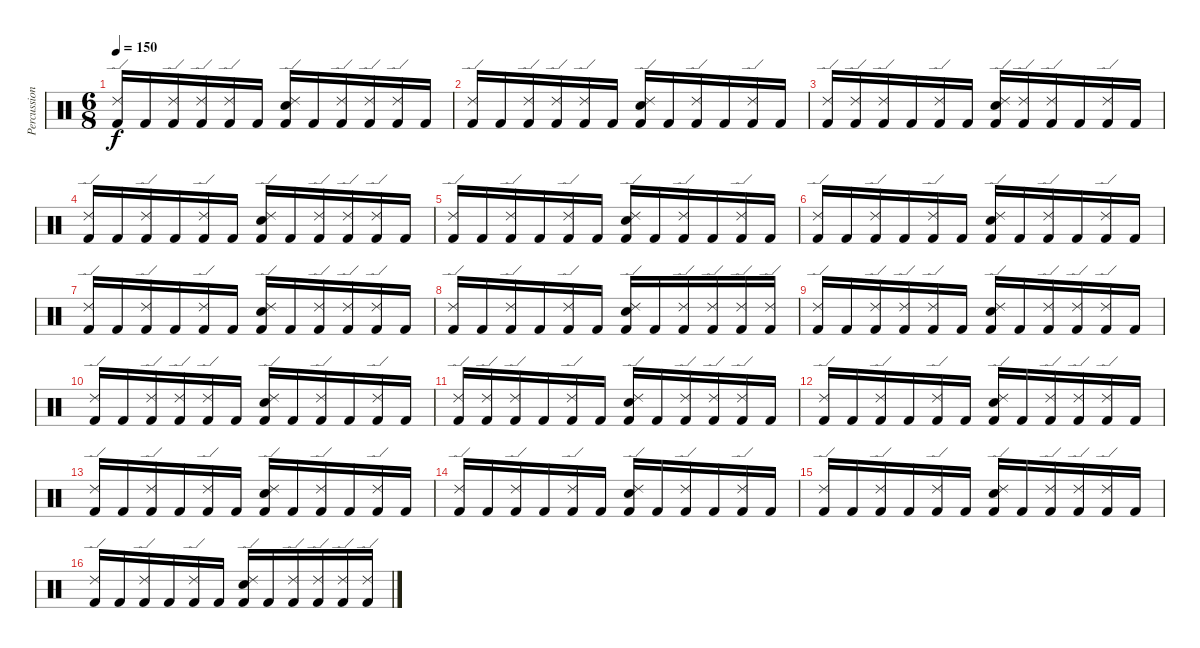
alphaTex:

\track ("Percussion" "Percussion") {instrument percussion}
\staff {score}
\articulation defaults
\ts (6 8)
\tempo 150
\clef neutral
\ks c
("Ride (edge) 2" "Kick (hit) 2").16{dy f} "Kick (hit) 2".16 ("Ride (edge) 2" "Kick (hit) 2").16 ("Ride (edge) 2" "Kick (hit) 2").16 ("Ride (edge) 2" "Kick (hit) 2").16 "Kick (hit) 2".16 ("Ride (edge) 2" "Electric Snare (hit)" "Kick (hit) 2").16 "Kick (hit) 2".16 ("Ride (edge) 2" "Kick (hit) 2").16 ("Ride (edge) 2" "Kick (hit) 2").16 ("Ride (edge) 2" "Kick (hit) 2").16 "Kick (hit) 2".16 |
("Ride (edge) 2" "Kick (hit) 2").16 "Kick (hit) 2".16 ("Ride (edge) 2" "Kick (hit) 2").16 ("Ride (edge) 2" "Kick (hit) 2").16 ("Ride (edge) 2" "Kick (hit) 2").16 "Kick (hit) 2".16 ("Ride (edge) 2" "Electric Snare (hit)" "Kick (hit) 2").16 "Kick (hit) 2".16 ("Ride (edge) 2" "Kick (hit) 2").16 "Kick (hit) 2".16 ("Ride (edge) 2" "Kick (hit) 2").16 "Kick (hit) 2".16 |
("Ride (edge) 2" "Kick (hit) 2").16 ("Ride (edge) 2" "Kick (hit) 2").16 ("Ride (edge) 2" "Kick (hit) 2").16 "Kick (hit) 2".16 ("Ride (edge) 2" "Kick (hit) 2").16 "Kick (hit) 2".16 ("Ride (edge) 2" "Electric Snare (hit)" "Kick (hit) 2").16 ("Ride (edge) 2" "Kick (hit) 2").16 ("Ride (edge) 2" "Kick (hit) 2").16 "Kick (hit) 2".16 ("Ride (edge) 2" "Kick (hit) 2").16 "Kick (hit) 2".16 |
("Ride (edge) 2" "Kick (hit) 2").16 "Kick (hit) 2".16 ("Ride (edge) 2" "Kick (hit) 2").16 "Kick (hit) 2".16 ("Ride (edge) 2" "Kick (hit) 2").16 "Kick (hit) 2".16 ("Ride (edge) 2" "Electric Snare (hit)" "Kick (hit) 2").16 "Kick (hit) 2".16 ("Ride (edge) 2" "Kick (hit) 2").16 ("Ride (edge) 2" "Kick (hit) 2").16 ("Ride (edge) 2" "Kick (hit) 2").16 "Kick (hit) 2".16 |
("Ride (edge) 2" "Kick (hit) 2").16 "Kick (hit) 2".16 ("Ride (edge) 2" "Kick (hit) 2").16 "Kick (hit) 2".16 ("Ride (edge) 2" "Kick (hit) 2").16 "Kick (hit) 2".16 ("Ride (edge) 2" "Electric Snare (hit)" "Kick (hit) 2").16 "Kick (hit) 2".16 ("Ride (edge) 2" "Kick (hit) 2").16 "Kick (hit) 2".16 ("Ride (edge) 2" "Kick (hit) 2").16 "Kick (hit) 2".16 |
("Ride (edge) 2" "Kick (hit) 2").16 "Kick (hit) 2".16 ("Ride (edge) 2" "Kick (hit) 2").16 "Kick (hit) 2".16 ("Ride (edge) 2" "Kick (hit) 2").16 "Kick (hit) 2".16 ("Ride (edge) 2" "Electric Snare (hit)" "Kick (hit) 2").16 "Kick (hit) 2".16 ("Ride (edge) 2" "Kick (hit) 2").16 "Kick (hit) 2".16 ("Ride (edge) 2" "Kick (hit) 2").16 "Kick (hit) 2".16 |
("Ride (edge) 2" "Kick (hit) 2").16 "Kick (hit) 2".16 ("Ride (edge) 2" "Kick (hit) 2").16 "Kick (hit) 2".16 ("Ride (edge) 2" "Kick (hit) 2").16 "Kick (hit) 2".16 ("Ride (edge) 2" "Electric Snare (hit)" "Kick (hit) 2").16 "Kick (hit) 2".16 ("Ride (edge) 2" "Kick (hit) 2").16 ("Ride (edge) 2" "Kick (hit) 2").16 ("Ride (edge) 2" "Kick (hit) 2").16 "Kick (hit) 2".16 |
("Ride (edge) 2" "Kick (hit) 2").16 "Kick (hit) 2".16 ("Ride (edge) 2" "Kick (hit) 2").16 "Kick (hit) 2".16 ("Ride (edge) 2" "Kick (hit) 2").16 "Kick (hit) 2".16 ("Ride (edge) 2" "Electric Snare (hit)" "Kick (hit) 2").16 "Kick (hit) 2".16 ("Ride (edge) 2" "Kick (hit) 2").16 ("Ride (edge) 2" "Kick (hit) 2").16 ("Ride (edge) 2" "Kick (hit) 2").16 ("Ride (edge) 2" "Kick (hit) 2").16 |
("Ride (edge) 2" "Kick (hit) 2").16 "Kick (hit) 2".16 ("Ride (edge) 2" "Kick (hit) 2").16 ("Ride (edge) 2" "Kick (hit) 2").16 ("Ride (edge) 2" "Kick (hit) 2").16 "Kick (hit) 2".16 ("Ride (edge) 2" "Electric Snare (hit)" "Kick (hit) 2").16 "Kick (hit) 2".16 ("Ride (edge) 2" "Kick (hit) 2").16 ("Ride (edge) 2" "Kick (hit) 2").16 ("Ride (edge) 2" "Kick (hit) 2").16 "Kick (hit) 2".16 |
("Ride (edge) 2" "Kick (hit) 2").16 "Kick (hit) 2".16 ("Ride (edge) 2" "Kick (hit) 2").16 ("Ride (edge) 2" "Kick (hit) 2").16 ("Ride (edge) 2" "Kick (hit) 2").16 "Kick (hit) 2".16 ("Ride (edge) 2" "Electric Snare (hit)" "Kick (hit) 2").16 "Kick (hit) 2".16 ("Ride (edge) 2" "Kick (hit) 2").16 "Kick (hit) 2".16 ("Ride (edge) 2" "Kick (hit) 2").16 "Kick (hit) 2".16 |
("Ride (edge) 2" "Kick (hit) 2").16 ("Ride (edge) 2" "Kick (hit) 2").16 ("Ride (edge) 2" "Kick (hit) 2").16 "Kick (hit) 2".16 ("Ride (edge) 2" "Kick (hit) 2").16 "Kick (hit) 2".16 ("Ride (edge) 2" "Electric Snare (hit)" "Kick (hit) 2").16 "Kick (hit) 2".16 ("Ride (edge) 2" "Kick (hit) 2").16 ("Ride (edge) 2" "Kick (hit) 2").16 ("Ride (edge) 2" "Kick (hit) 2").16 "Kick (hit) 2".16 |
("Ride (edge) 2" "Kick (hit) 2").16 "Kick (hit) 2".16 ("Ride (edge) 2" "Kick (hit) 2").16 "Kick (hit) 2".16 ("Ride (edge) 2" "Kick (hit) 2").16 "Kick (hit) 2".16 ("Ride (edge) 2" "Electric Snare (hit)" "Kick (hit) 2").16 "Kick (hit) 2".16 ("Ride (edge) 2" "Kick (hit) 2").16 ("Ride (edge) 2" "Kick (hit) 2").16 ("Ride (edge) 2" "Kick (hit) 2").16 "Kick (hit) 2".16 |
("Ride (edge) 2" "Kick (hit) 2").16 "Kick (hit) 2".16 ("Ride (edge) 2" "Kick (hit) 2").16 "Kick (hit) 2".16 ("Ride (edge) 2" "Kick (hit) 2").16 "Kick (hit) 2".16 ("Ride (edge) 2" "Electric Snare (hit)" "Kick (hit) 2").16 "Kick (hit) 2".16 ("Ride (edge) 2" "Kick (hit) 2").16 "Kick (hit) 2".16 ("Ride (edge) 2" "Kick (hit) 2").16 "Kick (hit) 2".16 |
("Ride (edge) 2" "Kick (hit) 2").16 "Kick (hit) 2".16 ("Ride (edge) 2" "Kick (hit) 2").16 "Kick (hit) 2".16 ("Ride (edge) 2" "Kick (hit) 2").16 "Kick (hit) 2".16 ("Ride (edge) 2" "Electric Snare (hit)" "Kick (hit) 2").16 "Kick (hit) 2".16 ("Ride (edge) 2" "Kick (hit) 2").16 "Kick (hit) 2".16 ("Ride (edge) 2" "Kick (hit) 2").16 "Kick (hit) 2".16 |
("Ride (edge) 2" "Kick (hit) 2").16 "Kick (hit) 2".16 ("Ride (edge) 2" "Kick (hit) 2").16 "Kick (hit) 2".16 ("Ride (edge) 2" "Kick (hit) 2").16 "Kick (hit) 2".16 ("Ride (edge) 2" "Electric Snare (hit)" "Kick (hit) 2").16 "Kick (hit) 2".16 ("Ride (edge) 2" "Kick (hit) 2").16 ("Ride (edge) 2" "Kick (hit) 2").16 ("Ride (edge) 2" "Kick (hit) 2").16 "Kick (hit) 2".16 |
("Ride (edge) 2" "Kick (hit) 2").16 "Kick (hit) 2".16 ("Ride (edge) 2" "Kick (hit) 2").16 "Kick (hit) 2".16 ("Ride (edge) 2" "Kick (hit) 2").16 "Kick (hit) 2".16 ("Ride (edge) 2" "Electric Snare (hit)" "Kick (hit) 2").16 "Kick (hit) 2".16 ("Ride (edge) 2" "Kick (hit) 2").16 ("Ride (edge) 2" "Kick (hit) 2").16 ("Ride (edge) 2" "Kick (hit) 2").16 ("Ride (edge) 2" "Kick (hit) 2").16
